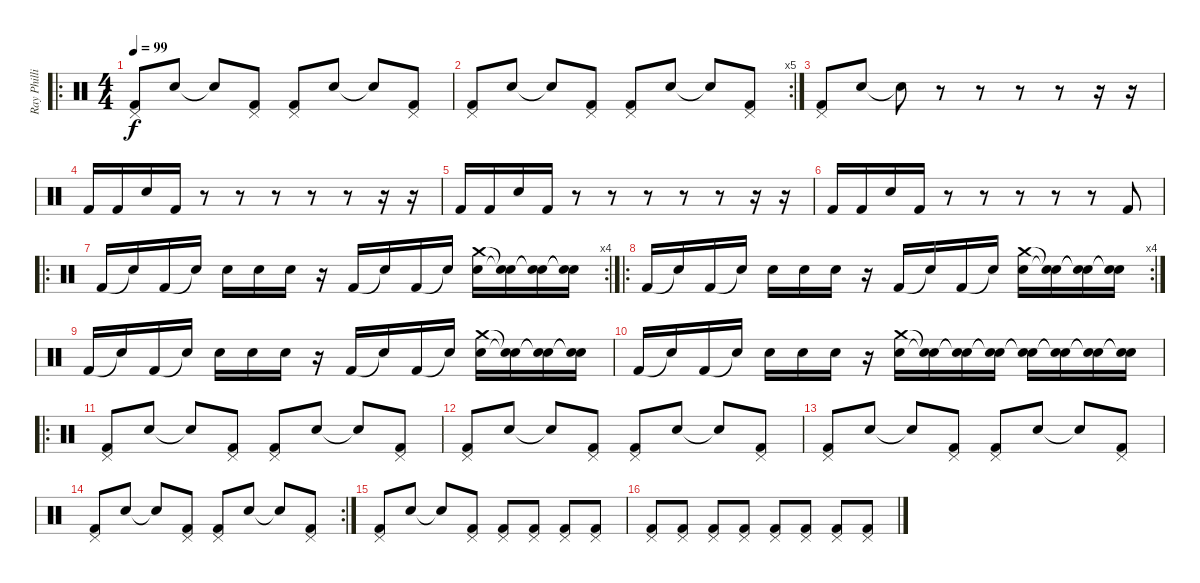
\track ("Ray Phillips" "Ray Philli") {instrument percussion}
\staff {score}
\articulation defaults
\ro
\ts (4 4)
\tempo 99
\clef neutral
\ks c
("Kick (hit) 2" "Pedal Hi-Hat (hit)").8{dy f} "Snare (hit) 2".8 "Snare (hit)"{t}.8 ("Kick (hit) 2" "Pedal Hi-Hat (hit)").8 ("Kick (hit) 2" "Pedal Hi-Hat (hit)").8 "Snare (hit) 2".8 "Snare (hit)"{t}.8 ("Kick (hit) 2" "Pedal Hi-Hat (hit)").8 |
\rc 5
("Kick (hit) 2" "Pedal Hi-Hat (hit)").8 "Snare (hit) 2".8 "Snare (hit)"{t}.8 ("Kick (hit) 2" "Pedal Hi-Hat (hit)").8 ("Kick (hit) 2" "Pedal Hi-Hat (hit)").8 "Snare (hit) 2".8 "Snare (hit)"{t}.8 ("Kick (hit) 2" "Pedal Hi-Hat (hit)").8 |
("Kick (hit) 2" "Pedal Hi-Hat (hit)").8 "Snare (hit) 2".8 "Snare (hit)"{t}.8 r.8 r.8 r.8 r.8 r.16 r.16 |
"Kick (hit) 2".16 "Kick (hit) 2".16 "Snare (hit) 2".16 "Kick (hit) 2".16 r.8 r.8 r.8 r.8 r.8 r.16 r.16 |
"Kick (hit) 2".16 "Kick (hit) 2".16 "Snare (hit) 2".16 "Kick (hit) 2".16 r.8 r.8 r.8 r.8 r.8 r.16 r.16 |
"Kick (hit) 2".16 "Kick (hit) 2".16 "Snare (hit) 2".16 "Kick (hit) 2".16 r.8 r.8 r.8 r.8 r.8 "Kick (hit) 2".8 |
\ro
\rc 4 "Kick (hit) 2".16 "Snare (hit)"{t}.16 "Kick (hit) 2".16 "Snare (hit)"{t}.16 "Snare (hit) 2".16 "Snare (hit) 2".16 "Snare (hit) 2".16
r.16 "Kick (hit) 2".16 "Snare (hit)"{t}.16 "Kick (hit) 2".16 "Snare (hit)"{t}.16 ("Snare (hit) 2" "Crash medium (hit)").16 ("Snare (hit)"{t} "Snare (hit)"{t}).16 ("Snare (hit)"{t} "Snare (hit)"{t}).16 ("Snare (hit)"{t} "Snare (hit)"{t}).16 |
\ro
\rc 4 "Kick (hit) 2".16 "Snare (hit)"{t}.16 "Kick (hit) 2".16 "Snare (hit)"{t}.16 "Snare (hit) 2".16 "Snare (hit) 2".16 "Snare (hit) 2".16
r.16 "Kick (hit) 2".16 "Snare (hit)"{t}.16 "Kick (hit) 2".16 "Snare (hit)"{t}.16 ("Snare (hit) 2" "Crash medium (hit)").16 ("Snare (hit)"{t} "Snare (hit)"{t}).16 ("Snare (hit)"{t} "Snare (hit)"{t}).16 ("Snare (hit)"{t} "Snare (hit)"{t}).16 |
"Kick (hit) 2".16 "Snare (hit)"{t}.16 "Kick (hit) 2".16 "Snare (hit)"{t}.16 "Snare (hit) 2".16 "Snare (hit) 2".16 "Snare (hit) 2".16 r.16 "Kick (hit) 2".16 "Snare (hit)"{t}.16 "Kick (hit) 2".16 "Snare (hit)"{t}.16 ("Snare (hit) 2" "Crash medium (hit)").16 ("Snare (hit)"{t} "Snare (hit)"{t}).16 ("Snare (hit)"{t} "Snare (hit)"{t}).16 ("Snare (hit)"{t} "Snare (hit)"{t}).16 |
"Kick (hit) 2".16 "Snare (hit)"{t}.16 "Kick (hit) 2".16 "Snare (hit)"{t}.16 "Snare (hit) 2".16 "Snare (hit) 2".16 "Snare (hit) 2".16 r.16 ("Snare (hit) 2" "Crash medium (hit)").16 ("Snare (hit)"{t} "Snare (hit)"{t}).16 ("Snare (hit)"{t} "Snare (hit)"{t}).16 ("Snare (hit)"{t} "Snare (hit)"{t}).16 ("Snare (hit)"{t} "Snare (hit)"{t}).16 ("Snare (hit)"{t} "Snare (hit)"{t}).16 ("Snare (hit)"{t} "Snare (hit)"{t}).16 ("Snare (hit)"{t} "Snare (hit)"{t}).16 |
\ro
("Kick (hit) 2" "Pedal Hi-Hat (hit)").8 "Snare (hit) 2".8 "Snare (hit)"{t}.8 ("Kick (hit) 2" "Pedal Hi-Hat (hit)").8 ("Kick (hit) 2" "Pedal Hi-Hat (hit)").8 "Snare (hit) 2".8 "Snare (hit)"{t}.8 ("Kick (hit) 2" "Pedal Hi-Hat (hit)").8 |
("Kick (hit) 2" "Pedal Hi-Hat (hit)").8 "Snare (hit) 2".8 "Snare (hit)"{t}.8 ("Kick (hit) 2" "Pedal Hi-Hat (hit)").8 ("Kick (hit) 2" "Pedal Hi-Hat (hit)").8 "Snare (hit) 2".8 "Snare (hit)"{t}.8 ("Kick (hit) 2" "Pedal Hi-Hat (hit)").8 |
("Kick (hit) 2" "Pedal Hi-Hat (hit)").8 "Snare (hit) 2".8 "Snare (hit)"{t}.8 ("Kick (hit) 2" "Pedal Hi-Hat (hit)").8 ("Kick (hit) 2" "Pedal Hi-Hat (hit)").8 "Snare (hit) 2".8 "Snare (hit)"{t}.8 ("Kick (hit) 2" "Pedal Hi-Hat (hit)").8 |
\rc 2
("Kick (hit) 2" "Pedal Hi-Hat (hit)").8 "Snare (hit) 2".8 "Snare (hit)"{t}.8 ("Kick (hit) 2" "Pedal Hi-Hat (hit)").8 ("Kick (hit) 2" "Pedal Hi-Hat (hit)").8 "Snare (hit) 2".8 "Snare (hit)"{t}.8 ("Kick (hit) 2" "Pedal Hi-Hat (hit)").8 |
("Kick (hit) 2" "Pedal Hi-Hat (hit)").8 "Snare (hit) 2".8 "Snare (hit)"{t}.8 ("Kick (hit) 2" "Pedal Hi-Hat (hit)").8 ("Kick (hit) 2" "Pedal Hi-Hat (hit)").8 ("Kick (hit) 2" "Pedal Hi-Hat (hit)").8 ("Kick (hit) 2" "Pedal Hi-Hat (hit)").8 ("Kick (hit) 2" "Pedal Hi-Hat (hit)").8 |
("Kick (hit) 2" "Pedal Hi-Hat (hit)").8 ("Kick (hit) 2" "Pedal Hi-Hat (hit)").8 ("Kick (hit) 2" "Pedal Hi-Hat (hit)").8 ("Kick (hit) 2" "Pedal Hi-Hat (hit)").8 ("Kick (hit) 2" "Pedal Hi-Hat (hit)").8 ("Kick (hit) 2" "Pedal Hi-Hat (hit)").8 ("Kick (hit) 2" "Pedal Hi-Hat (hit)").8 ("Kick (hit) 2" "Pedal Hi-Hat (hit)").8
